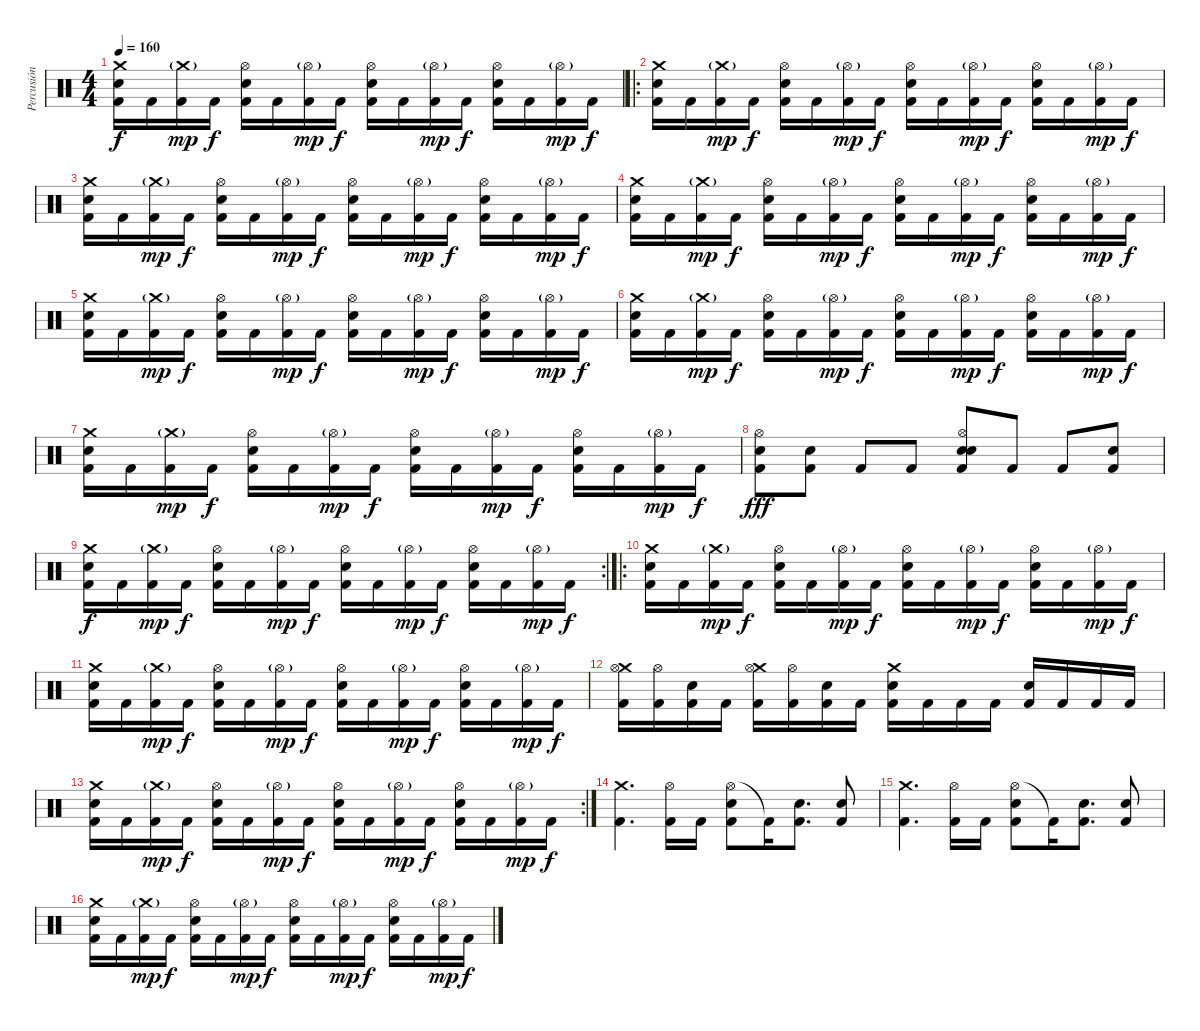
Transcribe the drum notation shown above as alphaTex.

\track ("Percusión" "Percusión") {instrument percussion}
\staff {score}
\articulation defaults
\ts (4 4)
\tempo 160
\clef neutral
\ks c
("Crash medium (hit)" "Electric Snare (hit)" "Kick (hit) 2").16{dy f} "Kick (hit) 2".16 ("Crash medium (hit)"{g} "Kick (hit) 2").16{dy mp} "Kick (hit) 2".16{dy f} ("Hi-Hat (open)" "Electric Snare (hit)" "Kick (hit) 2").16 "Kick (hit) 2".16 ("Hi-Hat (open)"{g} "Kick (hit) 2").16{dy mp} "Kick (hit) 2".16{dy f} ("Hi-Hat (open)" "Electric Snare (hit)" "Kick (hit) 2").16 "Kick (hit) 2".16 ("Hi-Hat (open)"{g} "Kick (hit) 2").16{dy mp} "Kick (hit) 2".16{dy f} ("Hi-Hat (open)" "Electric Snare (hit)" "Kick (hit) 2").16 "Kick (hit) 2".16 ("Hi-Hat (open)"{g} "Kick (hit) 2").16{dy mp} "Kick (hit) 2".16{dy f} |
\ro
("Crash medium (hit)" "Electric Snare (hit)" "Kick (hit) 2").16 "Kick (hit) 2".16 ("Crash medium (hit)"{g} "Kick (hit) 2").16{dy mp} "Kick (hit) 2".16{dy f} ("Hi-Hat (open)" "Electric Snare (hit)" "Kick (hit) 2").16 "Kick (hit) 2".16 ("Hi-Hat (open)"{g} "Kick (hit) 2").16{dy mp} "Kick (hit) 2".16{dy f} ("Hi-Hat (open)" "Electric Snare (hit)" "Kick (hit) 2").16 "Kick (hit) 2".16 ("Hi-Hat (open)"{g} "Kick (hit) 2").16{dy mp} "Kick (hit) 2".16{dy f} ("Hi-Hat (open)" "Electric Snare (hit)" "Kick (hit) 2").16 "Kick (hit) 2".16 ("Hi-Hat (open)"{g} "Kick (hit) 2").16{dy mp} "Kick (hit) 2".16{dy f} |
("Crash medium (hit)" "Electric Snare (hit)" "Kick (hit) 2").16 "Kick (hit) 2".16 ("Crash medium (hit)"{g} "Kick (hit) 2").16{dy mp} "Kick (hit) 2".16{dy f} ("Hi-Hat (open)" "Electric Snare (hit)" "Kick (hit) 2").16 "Kick (hit) 2".16 ("Hi-Hat (open)"{g} "Kick (hit) 2").16{dy mp} "Kick (hit) 2".16{dy f} ("Hi-Hat (open)" "Electric Snare (hit)" "Kick (hit) 2").16 "Kick (hit) 2".16 ("Hi-Hat (open)"{g} "Kick (hit) 2").16{dy mp} "Kick (hit) 2".16{dy f} ("Hi-Hat (open)" "Electric Snare (hit)" "Kick (hit) 2").16 "Kick (hit) 2".16 ("Hi-Hat (open)"{g} "Kick (hit) 2").16{dy mp} "Kick (hit) 2".16{dy f} |
("Crash medium (hit)" "Electric Snare (hit)" "Kick (hit) 2").16 "Kick (hit) 2".16 ("Crash medium (hit)"{g} "Kick (hit) 2").16{dy mp} "Kick (hit) 2".16{dy f} ("Hi-Hat (open)" "Electric Snare (hit)" "Kick (hit) 2").16 "Kick (hit) 2".16 ("Hi-Hat (open)"{g} "Kick (hit) 2").16{dy mp} "Kick (hit) 2".16{dy f} ("Hi-Hat (open)" "Electric Snare (hit)" "Kick (hit) 2").16 "Kick (hit) 2".16 ("Hi-Hat (open)"{g} "Kick (hit) 2").16{dy mp} "Kick (hit) 2".16{dy f} ("Hi-Hat (open)" "Electric Snare (hit)" "Kick (hit) 2").16 "Kick (hit) 2".16 ("Hi-Hat (open)"{g} "Kick (hit) 2").16{dy mp} "Kick (hit) 2".16{dy f} |
("Crash medium (hit)" "Electric Snare (hit)" "Kick (hit) 2").16 "Kick (hit) 2".16 ("Crash medium (hit)"{g} "Kick (hit) 2").16{dy mp} "Kick (hit) 2".16{dy f} ("Hi-Hat (open)" "Electric Snare (hit)" "Kick (hit) 2").16 "Kick (hit) 2".16 ("Hi-Hat (open)"{g} "Kick (hit) 2").16{dy mp} "Kick (hit) 2".16{dy f} ("Hi-Hat (open)" "Electric Snare (hit)" "Kick (hit) 2").16 "Kick (hit) 2".16 ("Hi-Hat (open)"{g} "Kick (hit) 2").16{dy mp} "Kick (hit) 2".16{dy f} ("Hi-Hat (open)" "Electric Snare (hit)" "Kick (hit) 2").16 "Kick (hit) 2".16 ("Hi-Hat (open)"{g} "Kick (hit) 2").16{dy mp} "Kick (hit) 2".16{dy f} |
("Crash medium (hit)" "Electric Snare (hit)" "Kick (hit) 2").16 "Kick (hit) 2".16 ("Crash medium (hit)"{g} "Kick (hit) 2").16{dy mp} "Kick (hit) 2".16{dy f} ("Hi-Hat (open)" "Electric Snare (hit)" "Kick (hit) 2").16 "Kick (hit) 2".16 ("Hi-Hat (open)"{g} "Kick (hit) 2").16{dy mp} "Kick (hit) 2".16{dy f} ("Hi-Hat (open)" "Electric Snare (hit)" "Kick (hit) 2").16 "Kick (hit) 2".16 ("Hi-Hat (open)"{g} "Kick (hit) 2").16{dy mp} "Kick (hit) 2".16{dy f} ("Hi-Hat (open)" "Electric Snare (hit)" "Kick (hit) 2").16 "Kick (hit) 2".16 ("Hi-Hat (open)"{g} "Kick (hit) 2").16{dy mp} "Kick (hit) 2".16{dy f} |
("Crash medium (hit)" "Electric Snare (hit)" "Kick (hit) 2").16 "Kick (hit) 2".16 ("Crash medium (hit)"{g} "Kick (hit) 2").16{dy mp} "Kick (hit) 2".16{dy f} ("Hi-Hat (open)" "Electric Snare (hit)" "Kick (hit) 2").16 "Kick (hit) 2".16 ("Hi-Hat (open)"{g} "Kick (hit) 2").16{dy mp} "Kick (hit) 2".16{dy f} ("Hi-Hat (open)" "Electric Snare (hit)" "Kick (hit) 2").16 "Kick (hit) 2".16 ("Hi-Hat (open)"{g} "Kick (hit) 2").16{dy mp} "Kick (hit) 2".16{dy f} ("Hi-Hat (open)" "Electric Snare (hit)" "Kick (hit) 2").16 "Kick (hit) 2".16 ("Hi-Hat (open)"{g} "Kick (hit) 2").16{dy mp} "Kick (hit) 2".16{dy f} |
("Electric Snare (hit)" "Hi-Hat (open)" "Kick (hit) 2").8{dy fff} ("Snare (hit) 2" "Kick (hit) 2").8 "Kick (hit) 2".8 "Kick (hit) 2".8 ("Electric Snare (hit)" "Hi-Hat (open)" "Snare (hit) 2" "Kick (hit) 2").8 "Kick (hit) 2".8 "Kick (hit) 2".8 ("Snare (hit) 2" "Kick (hit) 2").8 |
\rc 2
("Crash medium (hit)" "Electric Snare (hit)" "Kick (hit) 2").16{dy f} "Kick (hit) 2".16 ("Crash medium (hit)"{g} "Kick (hit) 2").16{dy mp} "Kick (hit) 2".16{dy f} ("Hi-Hat (open)" "Electric Snare (hit)" "Kick (hit) 2").16 "Kick (hit) 2".16 ("Hi-Hat (open)"{g} "Kick (hit) 2").16{dy mp} "Kick (hit) 2".16{dy f} ("Hi-Hat (open)" "Electric Snare (hit)" "Kick (hit) 2").16 "Kick (hit) 2".16 ("Hi-Hat (open)"{g} "Kick (hit) 2").16{dy mp} "Kick (hit) 2".16{dy f} ("Hi-Hat (open)" "Electric Snare (hit)" "Kick (hit) 2").16 "Kick (hit) 2".16 ("Hi-Hat (open)"{g} "Kick (hit) 2").16{dy mp} "Kick (hit) 2".16{dy f} |
\ro
("Crash medium (hit)" "Electric Snare (hit)" "Kick (hit) 2").16 "Kick (hit) 2".16 ("Crash medium (hit)"{g} "Kick (hit) 2").16{dy mp} "Kick (hit) 2".16{dy f} ("Hi-Hat (open)" "Electric Snare (hit)" "Kick (hit) 2").16 "Kick (hit) 2".16 ("Hi-Hat (open)"{g} "Kick (hit) 2").16{dy mp} "Kick (hit) 2".16{dy f} ("Hi-Hat (open)" "Electric Snare (hit)" "Kick (hit) 2").16 "Kick (hit) 2".16 ("Hi-Hat (open)"{g} "Kick (hit) 2").16{dy mp} "Kick (hit) 2".16{dy f} ("Hi-Hat (open)" "Electric Snare (hit)" "Kick (hit) 2").16 "Kick (hit) 2".16 ("Hi-Hat (open)"{g} "Kick (hit) 2").16{dy mp} "Kick (hit) 2".16{dy f} |
("Crash medium (hit)" "Electric Snare (hit)" "Kick (hit) 2").16 "Kick (hit) 2".16 ("Crash medium (hit)"{g} "Kick (hit) 2").16{dy mp} "Kick (hit) 2".16{dy f} ("Hi-Hat (open)" "Electric Snare (hit)" "Kick (hit) 2").16 "Kick (hit) 2".16 ("Hi-Hat (open)"{g} "Kick (hit) 2").16{dy mp} "Kick (hit) 2".16{dy f} ("Hi-Hat (open)" "Electric Snare (hit)" "Kick (hit) 2").16 "Kick (hit) 2".16 ("Hi-Hat (open)"{g} "Kick (hit) 2").16{dy mp} "Kick (hit) 2".16{dy f} ("Hi-Hat (open)" "Electric Snare (hit)" "Kick (hit) 2").16 "Kick (hit) 2".16 ("Hi-Hat (open)"{g} "Kick (hit) 2").16{dy mp} "Kick (hit) 2".16{dy f} |
("Crash medium (hit)" "Hi-Hat (open)" "Kick (hit) 2").16 ("Hi-Hat (open)" "Kick (hit) 2").16 ("Electric Snare (hit)" "Kick (hit) 2").16 "Kick (hit) 2".16 ("Crash medium (hit)" "Hi-Hat (open)" "Kick (hit) 2").16 ("Hi-Hat (open)" "Kick (hit) 2").16 ("Electric Snare (hit)" "Kick (hit) 2").16 "Kick (hit) 2".16 ("Crash medium (hit)" "Electric Snare (hit)" "Kick (hit) 2").16 "Kick (hit) 2".16 "Kick (hit) 2".16 "Kick (hit) 2".16 ("Snare (hit) 2" "Kick (hit) 2").16 "Kick (hit) 2".16 "Kick (hit) 2".16 "Kick (hit) 2".16 |
\rc 2
("Crash medium (hit)" "Electric Snare (hit)" "Kick (hit) 2").16 "Kick (hit) 2".16 ("Crash medium (hit)"{g} "Kick (hit) 2").16{dy mp} "Kick (hit) 2".16{dy f} ("Hi-Hat (open)" "Electric Snare (hit)" "Kick (hit) 2").16 "Kick (hit) 2".16 ("Hi-Hat (open)"{g} "Kick (hit) 2").16{dy mp} "Kick (hit) 2".16{dy f} ("Hi-Hat (open)" "Electric Snare (hit)" "Kick (hit) 2").16 "Kick (hit) 2".16 ("Hi-Hat (open)"{g} "Kick (hit) 2").16{dy mp} "Kick (hit) 2".16{dy f} ("Hi-Hat (open)" "Electric Snare (hit)" "Kick (hit) 2").16 "Kick (hit) 2".16 ("Hi-Hat (open)"{g} "Kick (hit) 2").16{dy mp} "Kick (hit) 2".16{dy f} |
("Crash medium (hit)" "Kick (hit) 2").4{d} ("Hi-Hat (open)" "Kick (hit) 2").16 "Kick (hit) 2".16 ("Hi-Hat (open)" "Electric Snare (hit)" "Kick (hit) 2").8 "Kick (hit) 2"{t}.16 ("Snare (hit) 2" "Kick (hit) 2").8{d} ("Snare (hit) 2" "Kick (hit) 2").8 |
("Crash medium (hit)" "Kick (hit) 2").4{d} ("Hi-Hat (open)" "Kick (hit) 2").16 "Kick (hit) 2".16 ("Hi-Hat (open)" "Electric Snare (hit)" "Kick (hit) 2").8 "Kick (hit) 2"{t}.16 ("Snare (hit) 2" "Kick (hit) 2").8{d} ("Snare (hit) 2" "Kick (hit) 2").8 |
("Crash medium (hit)" "Electric Snare (hit)" "Kick (hit) 2").16 "Kick (hit) 2".16 ("Crash medium (hit)"{g} "Kick (hit) 2").16{dy mp} "Kick (hit) 2".16{dy f} ("Hi-Hat (open)" "Electric Snare (hit)" "Kick (hit) 2").16 "Kick (hit) 2".16 ("Hi-Hat (open)"{g} "Kick (hit) 2").16{dy mp} "Kick (hit) 2".16{dy f} ("Hi-Hat (open)" "Electric Snare (hit)" "Kick (hit) 2").16 "Kick (hit) 2".16 ("Hi-Hat (open)"{g} "Kick (hit) 2").16{dy mp} "Kick (hit) 2".16{dy f} ("Hi-Hat (open)" "Electric Snare (hit)" "Kick (hit) 2").16 "Kick (hit) 2".16 ("Hi-Hat (open)"{g} "Kick (hit) 2").16{dy mp} "Kick (hit) 2".16{dy f}
